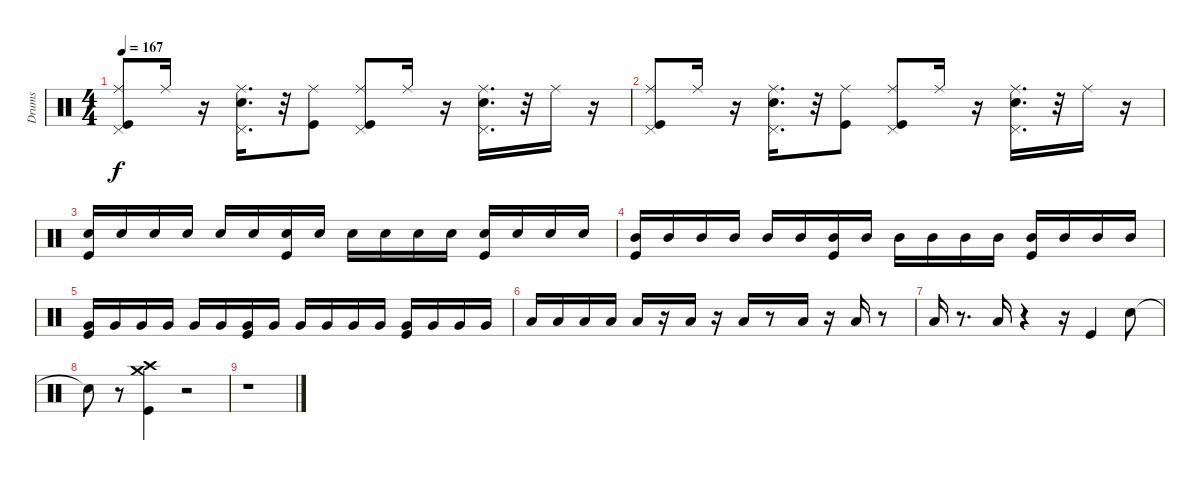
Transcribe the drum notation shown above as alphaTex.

\track ("Drums" "Drums") {instrument percussion}
\staff {score}
\articulation defaults
\ts (4 4)
\tempo 167
\clef neutral
\ks c
("Ride (middle)" "Kick (hit)" "Pedal Hi-Hat (hit)").8{dy f} "Ride (middle)".16 r.16 ("Ride (middle)" "Pedal Hi-Hat (hit)" "Electric Snare (hit)").16{d} r.32 ("Kick (hit)" "Ride (middle)").8 ("Pedal Hi-Hat (hit)" "Ride (middle)" "Kick (hit)").8 "Ride (middle)".16 r.16 ("Pedal Hi-Hat (hit)" "Electric Snare (hit)" "Ride (middle)").16{d} r.32 "Ride (middle)".16 r.16 |
("Pedal Hi-Hat (hit)" "Kick (hit)" "Ride (middle)").8 "Ride (middle)".16 r.16 ("Pedal Hi-Hat (hit)" "Ride (middle)" "Electric Snare (hit)").16{d} r.32 ("Kick (hit)" "Ride (middle)").8 ("Kick (hit)" "Pedal Hi-Hat (hit)" "Ride (middle)").8 "Ride (middle)".16 r.16 ("Electric Snare (hit)" "Ride (middle)" "Pedal Hi-Hat (hit)").16{d} r.32 "Ride (middle)".16 r.16 |
("Kick (hit)" "Electric Snare (hit)").16 "Electric Snare (hit)".16 "Electric Snare (hit)".16 "Electric Snare (hit)".16 "Electric Snare (hit)".16 "Electric Snare (hit)".16 ("Electric Snare (hit)" "Kick (hit)").16 "Electric Snare (hit)".16 "Electric Snare (hit)".16 "Electric Snare (hit)".16 "Electric Snare (hit)".16 "Electric Snare (hit)".16 ("Electric Snare (hit)" "Kick (hit)").16 "Electric Snare (hit)".16 "Electric Snare (hit)".16 "Electric Snare (hit)".16 |
("Kick (hit)" "Mid Tom (hit)").16 "Mid Tom (hit)".16 "Mid Tom (hit)".16 "Mid Tom (hit)".16 "Mid Tom (hit)".16 "Mid Tom (hit)".16 ("Kick (hit)" "Mid Tom (hit)").16 "Mid Tom (hit)".16 "Mid Tom (hit)".16 "Mid Tom (hit)".16 "Mid Tom (hit)".16 "Mid Tom (hit)".16 ("Kick (hit)" "Mid Tom (hit)").16 "Mid Tom (hit)".16 "Mid Tom (hit)".16 "Mid Tom (hit)".16 |
("Kick (hit)" "Very Low Tom (hit)").16 "Very Low Tom (hit)".16 "Very Low Tom (hit)".16 "Very Low Tom (hit)".16 "Very Low Tom (hit)".16 "Very Low Tom (hit)".16 ("Kick (hit)" "Very Low Tom (hit)").16 "Very Low Tom (hit)".16 "Very Low Tom (hit)".16 "Very Low Tom (hit)".16 "Very Low Tom (hit)".16 "Very Low Tom (hit)".16 ("Kick (hit)" "Very Low Tom (hit)").16 "Very Low Tom (hit)".16 "Very Low Tom (hit)".16 "Very Low Tom (hit)".16 |
"Low Floor Tom (hit)".16 "Low Floor Tom (hit)".16 "Low Floor Tom (hit)".16 "Low Floor Tom (hit)".16 "Low Floor Tom (hit)".16 r.16 "Low Floor Tom (hit)".16 r.16 "Low Floor Tom (hit)".16 r.8 "Low Floor Tom (hit)".16 r.16 "Low Floor Tom (hit)".16 r.8 |
"Low Floor Tom (hit)".16 r.8{d} "Low Floor Tom (hit)".16 r.4 r.16 "Kick (hit)".4 "Electric Snare (hit)".8 |
"Snare (hit)"{t}.8 r.8 ("Crash medium (hit)" "Crash high (hit)" "Kick (hit)").4 r.2 |
r.1
